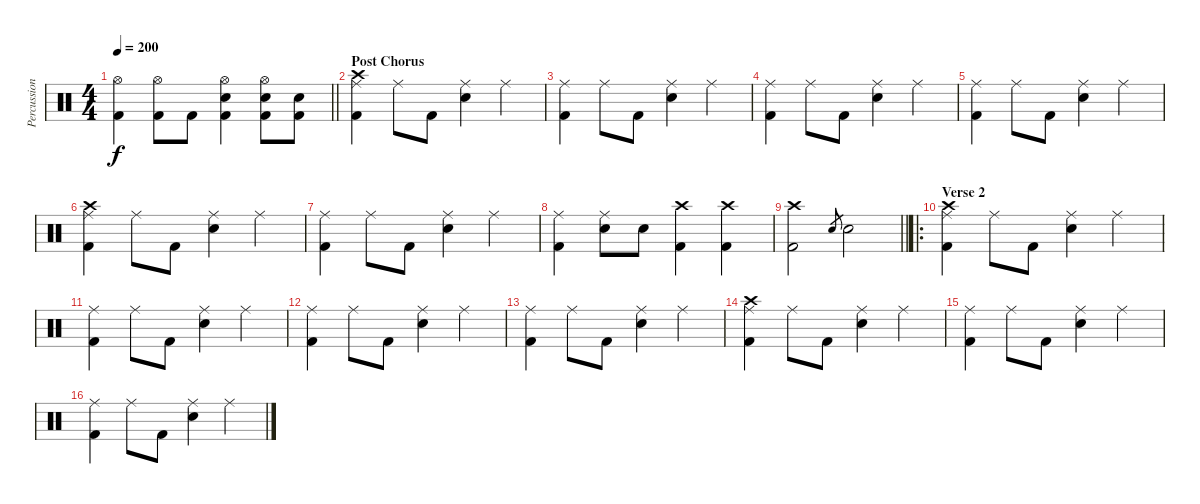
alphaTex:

\track ("Percussion" "Percussion") {instrument percussion}
\staff {score}
\articulation defaults
\ts (4 4)
\tempo 200
\clef neutral
\barLineRight lightlight
\ks c
("Hi-Hat (open)" "Kick (hit) 2").4{dy f} ("Hi-Hat (open)" "Kick (hit) 2").8 "Kick (hit) 2".8 ("Hi-Hat (open)" "Snare (hit) 2" "Kick (hit) 2").4 ("Hi-Hat (open)" "Snare (hit) 2" "Kick (hit) 2").8 ("Snare (hit) 2" "Kick (hit) 2").8 |
\section ("" "Post Chorus")
("Crash high (hit)" "Ride (middle)" "Kick (hit) 2").4 "Ride (middle)".8 "Kick (hit) 2".8 ("Ride (middle)" "Snare (hit) 2").4 "Ride (middle)".4 |
("Ride (middle)" "Kick (hit) 2").4 "Ride (middle)".8 "Kick (hit) 2".8 ("Ride (middle)" "Snare (hit) 2").4 "Ride (middle)".4 |
("Ride (middle)" "Kick (hit) 2").4 "Ride (middle)".8 "Kick (hit) 2".8 ("Ride (middle)" "Snare (hit) 2").4 "Ride (middle)".4 |
("Ride (middle)" "Kick (hit) 2").4 "Ride (middle)".8 "Kick (hit) 2".8 ("Ride (middle)" "Snare (hit) 2").4 "Ride (middle)".4 |
("Crash high (hit)" "Ride (middle)" "Kick (hit) 2").4 "Ride (middle)".8 "Kick (hit) 2".8 ("Ride (middle)" "Snare (hit) 2").4 "Ride (middle)".4 |
("Ride (middle)" "Kick (hit) 2").4 "Ride (middle)".8 "Kick (hit) 2".8 ("Ride (middle)" "Snare (hit) 2").4 "Ride (middle)".4 |
("Ride (middle)" "Kick (hit) 2").4 ("Ride (middle)" "Snare (hit) 2").8 "Snare (hit) 2".8 ("Crash high (hit)" "Kick (hit) 2").4 ("Crash high (hit)" "Kick (hit) 2").4 |
\barLineRight lightlight
("Crash high (hit)" "Kick (hit) 2").2 "Snare (hit) 2".8{gr} "Snare (hit) 2".2 |
\ro
\section ("" "Verse 2")
("Crash high (hit)" "Ride (middle)" "Kick (hit) 2").4 "Ride (middle)".8 "Kick (hit) 2".8 ("Ride (middle)" "Snare (hit) 2").4 "Ride (middle)".4 |
("Ride (middle)" "Kick (hit) 2").4 "Ride (middle)".8 "Kick (hit) 2".8 ("Ride (middle)" "Snare (hit) 2").4 "Ride (middle)".4 |
("Ride (middle)" "Kick (hit) 2").4 "Ride (middle)".8 "Kick (hit) 2".8 ("Ride (middle)" "Snare (hit) 2").4 "Ride (middle)".4 |
("Ride (middle)" "Kick (hit) 2").4 "Ride (middle)".8 "Kick (hit) 2".8 ("Ride (middle)" "Snare (hit) 2").4 "Ride (middle)".4 |
("Crash high (hit)" "Ride (middle)" "Kick (hit) 2").4 "Ride (middle)".8 "Kick (hit) 2".8 ("Ride (middle)" "Snare (hit) 2").4 "Ride (middle)".4 |
("Ride (middle)" "Kick (hit) 2").4 "Ride (middle)".8 "Kick (hit) 2".8 ("Ride (middle)" "Snare (hit) 2").4 "Ride (middle)".4 |
("Ride (middle)" "Kick (hit) 2").4 "Ride (middle)".8 "Kick (hit) 2".8 ("Ride (middle)" "Snare (hit) 2").4 "Ride (middle)".4
